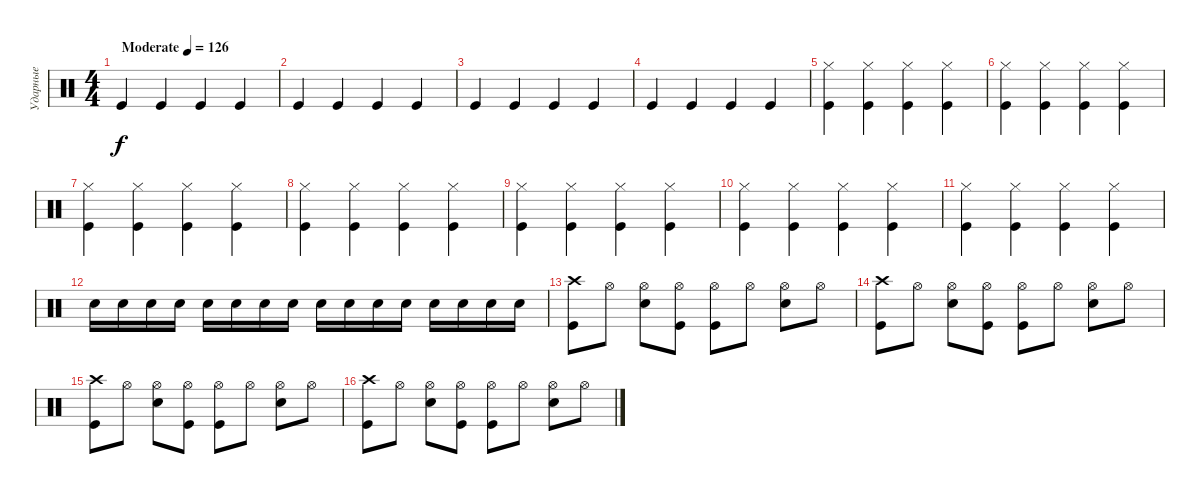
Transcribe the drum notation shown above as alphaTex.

\track ("Ударные" "Ударные") {instrument percussion}
\staff {score}
\articulation defaults
\ts (4 4)
\tempo (126 "Moderate")
\clef neutral
\ks c "Kick (hit)".4{dy f} "Kick (hit)".4 "Kick (hit)".4 "Kick (hit)".4
|
"Kick (hit)".4 "Kick (hit)".4 "Kick (hit)".4 "Kick (hit)".4 |
"Kick (hit)".4 "Kick (hit)".4 "Kick (hit)".4 "Kick (hit)".4 |
"Kick (hit)".4 "Kick (hit)".4 "Kick (hit)".4 "Kick (hit)".4 |
("Kick (hit)" "Hi-Hat (closed)").4 ("Kick (hit)" "Hi-Hat (closed)").4 ("Kick (hit)" "Hi-Hat (closed)").4 ("Kick (hit)" "Hi-Hat (closed)").4 |
("Kick (hit)" "Hi-Hat (closed)").4 ("Kick (hit)" "Hi-Hat (closed)").4 ("Kick (hit)" "Hi-Hat (closed)").4 ("Kick (hit)" "Hi-Hat (closed)").4 |
("Kick (hit)" "Hi-Hat (closed)").4 ("Kick (hit)" "Hi-Hat (closed)").4 ("Kick (hit)" "Hi-Hat (closed)").4 ("Kick (hit)" "Hi-Hat (closed)").4 |
("Kick (hit)" "Hi-Hat (closed)").4 ("Kick (hit)" "Hi-Hat (closed)").4 ("Kick (hit)" "Hi-Hat (closed)").4 ("Kick (hit)" "Hi-Hat (closed)").4 |
("Kick (hit)" "Hi-Hat (closed)").4 ("Kick (hit)" "Hi-Hat (closed)").4 ("Kick (hit)" "Hi-Hat (closed)").4 ("Kick (hit)" "Hi-Hat (closed)").4 |
("Kick (hit)" "Hi-Hat (closed)").4 ("Kick (hit)" "Hi-Hat (closed)").4 ("Kick (hit)" "Hi-Hat (closed)").4 ("Kick (hit)" "Hi-Hat (closed)").4 |
("Kick (hit)" "Hi-Hat (closed)").4 ("Kick (hit)" "Hi-Hat (closed)").4 ("Kick (hit)" "Hi-Hat (closed)").4 ("Kick (hit)" "Hi-Hat (closed)").4 |
"Snare (hit) 2".16 "Snare (hit) 2".16 "Snare (hit) 2".16 "Snare (hit) 2".16 "Snare (hit) 2".16 "Snare (hit) 2".16 "Snare (hit) 2".16 "Snare (hit) 2".16 "Snare (hit) 2".16 "Snare (hit) 2".16 "Snare (hit) 2".16 "Snare (hit) 2".16 "Snare (hit) 2".16 "Snare (hit) 2".16 "Snare (hit) 2".16 "Snare (hit) 2".16 |
("Crash high (hit)" "Kick (hit)").8 "Hi-Hat (open)".8 ("Hi-Hat (open)" "Snare (hit) 2").8 ("Hi-Hat (open)" "Kick (hit)").8 ("Hi-Hat (open)" "Kick (hit)").8 "Hi-Hat (open)".8 ("Hi-Hat (open)" "Snare (hit) 2").8 "Hi-Hat (open)".8 |
("Crash high (hit)" "Kick (hit)").8 "Hi-Hat (open)".8 ("Hi-Hat (open)" "Snare (hit) 2").8 ("Hi-Hat (open)" "Kick (hit)").8 ("Hi-Hat (open)" "Kick (hit)").8 "Hi-Hat (open)".8 ("Hi-Hat (open)" "Snare (hit) 2").8 "Hi-Hat (open)".8 |
("Crash high (hit)" "Kick (hit)").8 "Hi-Hat (open)".8 ("Hi-Hat (open)" "Snare (hit) 2").8 ("Hi-Hat (open)" "Kick (hit)").8 ("Hi-Hat (open)" "Kick (hit)").8 "Hi-Hat (open)".8 ("Hi-Hat (open)" "Snare (hit) 2").8 "Hi-Hat (open)".8 |
("Crash high (hit)" "Kick (hit)").8 "Hi-Hat (open)".8 ("Hi-Hat (open)" "Snare (hit) 2").8 ("Hi-Hat (open)" "Kick (hit)").8 ("Hi-Hat (open)" "Kick (hit)").8 "Hi-Hat (open)".8 ("Hi-Hat (open)" "Snare (hit) 2").8 "Hi-Hat (open)".8
